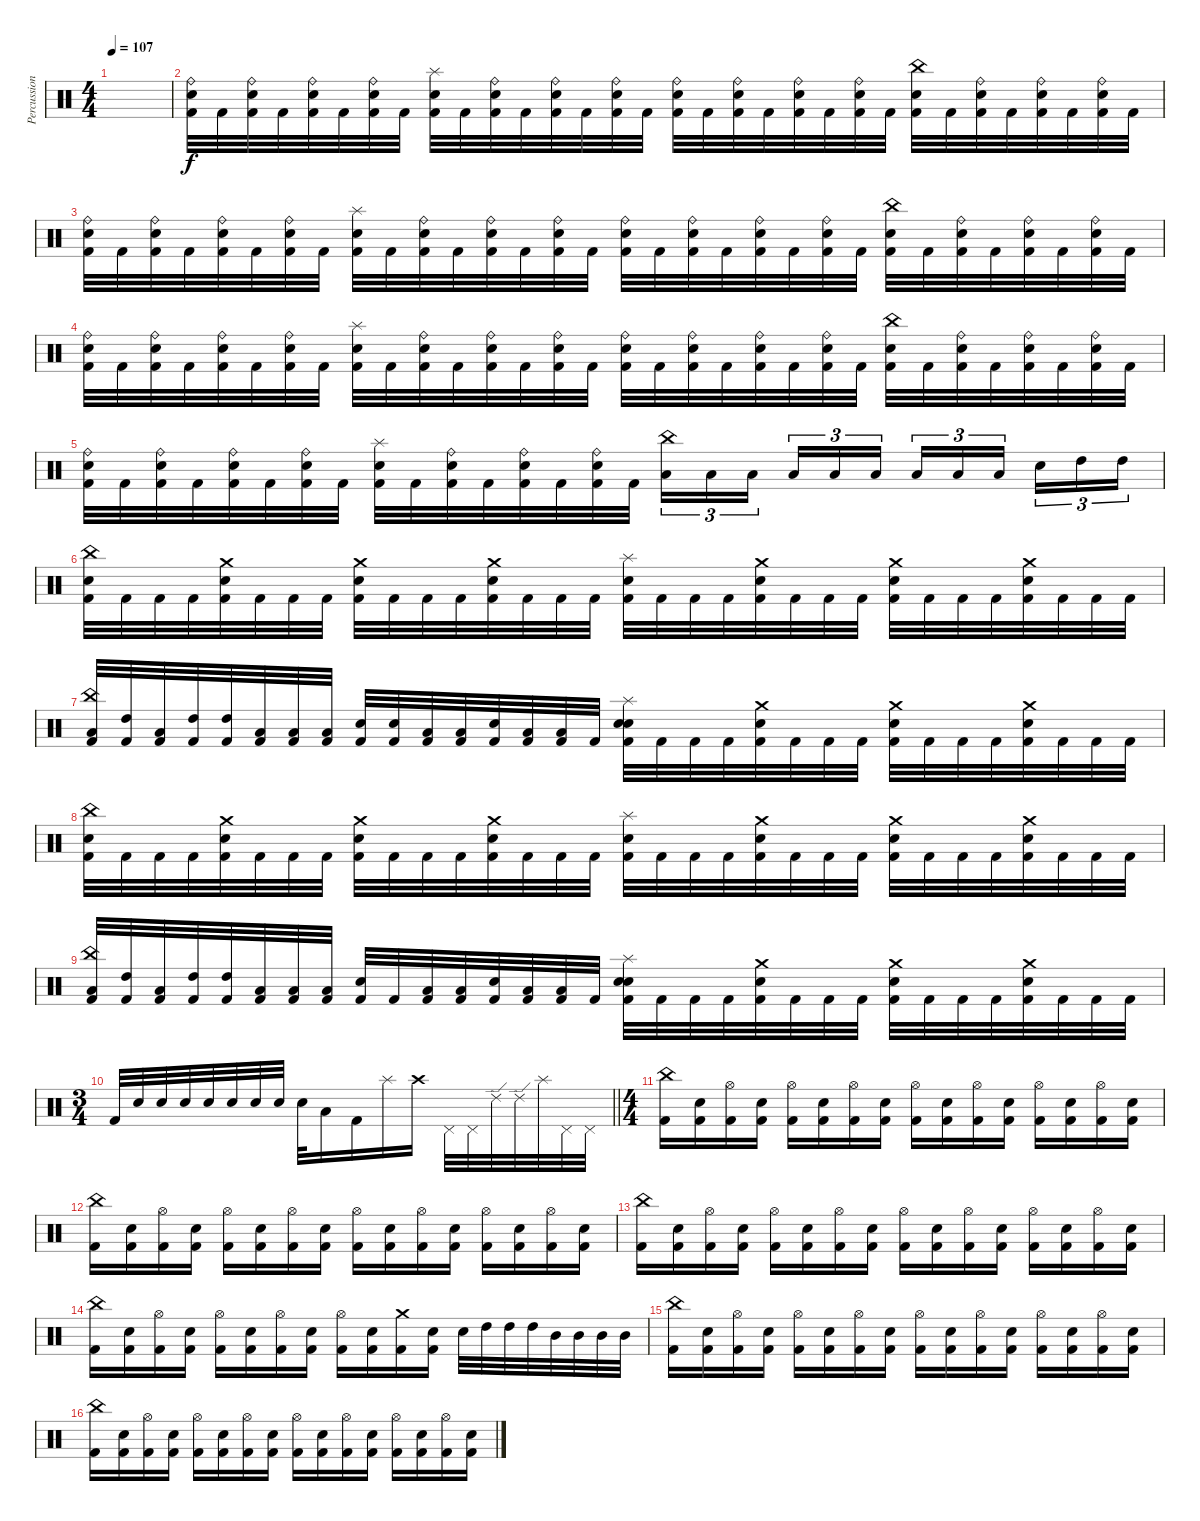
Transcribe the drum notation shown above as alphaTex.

\track ("Percussion" "Percussion") {instrument percussion}
\staff {score}
\articulation defaults
\ts (4 4)
\tempo 107
\clef neutral
\ks c
|
("Kick (hit) 2" "Electric Snare (hit)" "Ride (bell)").32 "Kick (hit) 2".32 ("Kick (hit) 2" "Electric Snare (hit)" "Ride (bell)").32 "Kick (hit) 2".32 ("Kick (hit) 2" "Electric Snare (hit)" "Ride (bell)").32 "Kick (hit) 2".32 ("Kick (hit) 2" "Electric Snare (hit)" "Ride (bell)").32 "Kick (hit) 2".32 ("Kick (hit) 2" "Electric Snare (hit)" "Splash (hit)").32 "Kick (hit) 2".32 ("Kick (hit) 2" "Electric Snare (hit)" "Ride (bell)").32 "Kick (hit) 2".32 ("Kick (hit) 2" "Electric Snare (hit)" "Ride (bell)").32 "Kick (hit) 2".32 ("Kick (hit) 2" "Electric Snare (hit)" "Ride (bell)").32 "Kick (hit) 2".32 ("Kick (hit) 2" "Electric Snare (hit)" "Ride (bell)").32 "Kick (hit) 2".32 ("Kick (hit) 2" "Electric Snare (hit)" "Ride (bell)").32 "Kick (hit) 2".32 ("Kick (hit) 2" "Electric Snare (hit)" "Ride (bell)").32 "Kick (hit) 2".32 ("Kick (hit) 2" "Electric Snare (hit)" "Ride (bell)").32 "Kick (hit) 2".32 ("Kick (hit) 2" "Electric Snare (hit)" "China (hit)").32 "Kick (hit) 2".32 ("Kick (hit) 2" "Electric Snare (hit)" "Ride (bell)").32 "Kick (hit) 2".32 ("Kick (hit) 2" "Electric Snare (hit)" "Ride (bell)").32 "Kick (hit) 2".32 ("Kick (hit) 2" "Electric Snare (hit)" "Ride (bell)").32 "Kick (hit) 2".32 |
("Kick (hit) 2" "Electric Snare (hit)" "Ride (bell)").32 "Kick (hit) 2".32 ("Kick (hit) 2" "Electric Snare (hit)" "Ride (bell)").32 "Kick (hit) 2".32 ("Kick (hit) 2" "Electric Snare (hit)" "Ride (bell)").32 "Kick (hit) 2".32 ("Kick (hit) 2" "Electric Snare (hit)" "Ride (bell)").32 "Kick (hit) 2".32 ("Kick (hit) 2" "Electric Snare (hit)" "Splash (hit)").32 "Kick (hit) 2".32 ("Kick (hit) 2" "Electric Snare (hit)" "Ride (bell)").32 "Kick (hit) 2".32 ("Kick (hit) 2" "Electric Snare (hit)" "Ride (bell)").32 "Kick (hit) 2".32 ("Kick (hit) 2" "Electric Snare (hit)" "Ride (bell)").32 "Kick (hit) 2".32 ("Kick (hit) 2" "Electric Snare (hit)" "Ride (bell)").32 "Kick (hit) 2".32 ("Kick (hit) 2" "Electric Snare (hit)" "Ride (bell)").32 "Kick (hit) 2".32 ("Kick (hit) 2" "Electric Snare (hit)" "Ride (bell)").32 "Kick (hit) 2".32 ("Kick (hit) 2" "Electric Snare (hit)" "Ride (bell)").32 "Kick (hit) 2".32 ("Kick (hit) 2" "Electric Snare (hit)" "China (hit)").32 "Kick (hit) 2".32 ("Kick (hit) 2" "Electric Snare (hit)" "Ride (bell)").32 "Kick (hit) 2".32 ("Kick (hit) 2" "Electric Snare (hit)" "Ride (bell)").32 "Kick (hit) 2".32 ("Kick (hit) 2" "Electric Snare (hit)" "Ride (bell)").32 "Kick (hit) 2".32 |
("Kick (hit) 2" "Electric Snare (hit)" "Ride (bell)").32 "Kick (hit) 2".32 ("Kick (hit) 2" "Electric Snare (hit)" "Ride (bell)").32 "Kick (hit) 2".32 ("Kick (hit) 2" "Electric Snare (hit)" "Ride (bell)").32 "Kick (hit) 2".32 ("Kick (hit) 2" "Electric Snare (hit)" "Ride (bell)").32 "Kick (hit) 2".32 ("Kick (hit) 2" "Electric Snare (hit)" "Splash (hit)").32 "Kick (hit) 2".32 ("Kick (hit) 2" "Electric Snare (hit)" "Ride (bell)").32 "Kick (hit) 2".32 ("Kick (hit) 2" "Electric Snare (hit)" "Ride (bell)").32 "Kick (hit) 2".32 ("Kick (hit) 2" "Electric Snare (hit)" "Ride (bell)").32 "Kick (hit) 2".32 ("Kick (hit) 2" "Electric Snare (hit)" "Ride (bell)").32 "Kick (hit) 2".32 ("Kick (hit) 2" "Electric Snare (hit)" "Ride (bell)").32 "Kick (hit) 2".32 ("Kick (hit) 2" "Electric Snare (hit)" "Ride (bell)").32 "Kick (hit) 2".32 ("Kick (hit) 2" "Electric Snare (hit)" "Ride (bell)").32 "Kick (hit) 2".32 ("Kick (hit) 2" "Electric Snare (hit)" "China (hit)").32 "Kick (hit) 2".32 ("Kick (hit) 2" "Electric Snare (hit)" "Ride (bell)").32 "Kick (hit) 2".32 ("Kick (hit) 2" "Electric Snare (hit)" "Ride (bell)").32 "Kick (hit) 2".32 ("Kick (hit) 2" "Electric Snare (hit)" "Ride (bell)").32 "Kick (hit) 2".32 |
("Kick (hit) 2" "Electric Snare (hit)" "Ride (bell)").32 "Kick (hit) 2".32 ("Kick (hit) 2" "Electric Snare (hit)" "Ride (bell)").32 "Kick (hit) 2".32 ("Kick (hit) 2" "Electric Snare (hit)" "Ride (bell)").32 "Kick (hit) 2".32 ("Kick (hit) 2" "Electric Snare (hit)" "Ride (bell)").32 "Kick (hit) 2".32 ("Kick (hit) 2" "Electric Snare (hit)" "Splash (hit)").32 "Kick (hit) 2".32 ("Kick (hit) 2" "Electric Snare (hit)" "Ride (bell)").32 "Kick (hit) 2".32 ("Kick (hit) 2" "Electric Snare (hit)" "Ride (bell)").32 "Kick (hit) 2".32 ("Kick (hit) 2" "Electric Snare (hit)" "Ride (bell)").32 "Kick (hit) 2".32 ("Low Floor Tom (hit)" "China (hit)").16{tu (3 2)} "Low Floor Tom (hit)".16{tu (3 2)} "Low Floor Tom (hit)".16{tu (3 2) beam splitsecondary} "Low Floor Tom (hit)".16{tu (3 2)} "Low Tom (hit)".16{tu (3 2)} "Low Tom (hit)".16{tu (3 2)} "Low Tom (hit)".16{tu (3 2)} "Low Tom (hit)".16{tu (3 2)} "Low Floor Tom (hit)".16{tu (3 2) beam splitsecondary} "Electric Snare (hit)".16{tu (3 2)} "High Tom (hit)".16{tu (3 2)} "High Tom (hit)".16{tu (3 2)} |
("Kick (hit) 2" "Electric Snare (hit)" "China (hit)").32 "Kick (hit) 2".32 "Kick (hit) 2".32 "Kick (hit) 2".32 ("Kick (hit) 2" "Electric Snare (hit)" "Crash medium (hit)").32 "Kick (hit) 2".32 "Kick (hit) 2".32 "Kick (hit) 2".32 ("Kick (hit) 2" "Electric Snare (hit)" "Crash medium (hit)").32 "Kick (hit) 2".32 "Kick (hit) 2".32 "Kick (hit) 2".32 ("Kick (hit) 2" "Electric Snare (hit)" "Crash medium (hit)").32 "Kick (hit) 2".32 "Kick (hit) 2".32 "Kick (hit) 2".32 ("Kick (hit) 2" "Electric Snare (hit)" "Splash (hit)").32 "Kick (hit) 2".32 "Kick (hit) 2".32 "Kick (hit) 2".32 ("Kick (hit) 2" "Electric Snare (hit)" "Crash medium (hit)").32 "Kick (hit) 2".32 "Kick (hit) 2".32 "Kick (hit) 2".32 ("Kick (hit) 2" "Electric Snare (hit)" "Crash medium (hit)").32 "Kick (hit) 2".32 "Kick (hit) 2".32 "Kick (hit) 2".32 ("Kick (hit) 2" "Electric Snare (hit)" "Crash medium (hit)").32 "Kick (hit) 2".32 "Kick (hit) 2".32 "Kick (hit) 2".32 |
("Kick (hit) 2" "Low Tom (hit)" "China (hit)").32 ("Kick (hit) 2" "High Tom (hit)").32 ("Kick (hit) 2" "Low Tom (hit)").32 ("Kick (hit) 2" "High Tom (hit)").32 ("Kick (hit) 2" "High Tom (hit)").32 ("Kick (hit) 2" "Low Tom (hit)").32 ("Kick (hit) 2" "Low Tom (hit)").32 ("Kick (hit) 2" "Low Floor Tom (hit)").32 ("Kick (hit) 2" "Electric Snare (hit)").32 ("Kick (hit) 2" "Electric Snare (hit)").32 ("Kick (hit) 2" "Low Floor Tom (hit)").32 ("Kick (hit) 2" "Low Tom (hit)").32 ("Kick (hit) 2" "Electric Snare (hit)").32 ("Kick (hit) 2" "Low Tom (hit)").32 ("Kick (hit) 2" "Low Floor Tom (hit)").32 "Kick (hit) 2".32 ("Kick (hit) 2" "Electric Snare (hit)" "Splash (hit)" "Electric Snare (hit)").32 "Kick (hit) 2".32 "Kick (hit) 2".32 "Kick (hit) 2".32 ("Kick (hit) 2" "Electric Snare (hit)" "Crash medium (hit)").32 "Kick (hit) 2".32 "Kick (hit) 2".32 "Kick (hit) 2".32 ("Kick (hit) 2" "Electric Snare (hit)" "Crash medium (hit)").32 "Kick (hit) 2".32 "Kick (hit) 2".32 "Kick (hit) 2".32 ("Kick (hit) 2" "Electric Snare (hit)" "Crash medium (hit)").32 "Kick (hit) 2".32 "Kick (hit) 2".32 "Kick (hit) 2".32 |
("Kick (hit) 2" "Electric Snare (hit)" "China (hit)").32 "Kick (hit) 2".32 "Kick (hit) 2".32 "Kick (hit) 2".32 ("Kick (hit) 2" "Electric Snare (hit)" "Crash medium (hit)").32 "Kick (hit) 2".32 "Kick (hit) 2".32 "Kick (hit) 2".32 ("Kick (hit) 2" "Electric Snare (hit)" "Crash medium (hit)").32 "Kick (hit) 2".32 "Kick (hit) 2".32 "Kick (hit) 2".32 ("Kick (hit) 2" "Electric Snare (hit)" "Crash medium (hit)").32 "Kick (hit) 2".32 "Kick (hit) 2".32 "Kick (hit) 2".32 ("Kick (hit) 2" "Electric Snare (hit)" "Splash (hit)").32 "Kick (hit) 2".32 "Kick (hit) 2".32 "Kick (hit) 2".32 ("Kick (hit) 2" "Electric Snare (hit)" "Crash medium (hit)").32 "Kick (hit) 2".32 "Kick (hit) 2".32 "Kick (hit) 2".32 ("Kick (hit) 2" "Electric Snare (hit)" "Crash medium (hit)").32 "Kick (hit) 2".32 "Kick (hit) 2".32 "Kick (hit) 2".32 ("Kick (hit) 2" "Electric Snare (hit)" "Crash medium (hit)").32 "Kick (hit) 2".32 "Kick (hit) 2".32 "Kick (hit) 2".32 |
("Kick (hit) 2" "Low Tom (hit)" "China (hit)").32 ("Kick (hit) 2" "High Tom (hit)").32 ("Kick (hit) 2" "Low Tom (hit)").32 ("Kick (hit) 2" "High Tom (hit)").32 ("Kick (hit) 2" "High Tom (hit)").32 ("Kick (hit) 2" "Low Tom (hit)").32 ("Kick (hit) 2" "Low Tom (hit)").32 ("Kick (hit) 2" "Low Tom (hit)").32 ("Kick (hit) 2" "Electric Snare (hit)").32 "Kick (hit) 2".32 ("Kick (hit) 2" "Low Floor Tom (hit)").32 ("Kick (hit) 2" "Low Tom (hit)").32 ("Kick (hit) 2" "Electric Snare (hit)").32 ("Kick (hit) 2" "Low Tom (hit)").32 ("Kick (hit) 2" "Low Floor Tom (hit)").32 "Kick (hit) 2".32 ("Kick (hit) 2" "Electric Snare (hit)" "Splash (hit)" "Electric Snare (hit)").32 "Kick (hit) 2".32 "Kick (hit) 2".32 "Kick (hit) 2".32 ("Kick (hit) 2" "Electric Snare (hit)" "Crash medium (hit)").32 "Kick (hit) 2".32 "Kick (hit) 2".32 "Kick (hit) 2".32 ("Kick (hit) 2" "Electric Snare (hit)" "Crash medium (hit)").32 "Kick (hit) 2".32 "Kick (hit) 2".32 "Kick (hit) 2".32 ("Kick (hit) 2" "Electric Snare (hit)" "Crash medium (hit)").32 "Kick (hit) 2".32 "Kick (hit) 2".32 "Kick (hit) 2".32 |
\ts (3 4)
\barLineRight lightlight "Kick (hit) 2".32 "Electric Snare (hit)".32 "Electric Snare (hit)".32 "Electric Snare (hit)".32 "Electric Snare (hit)".32 "Electric Snare (hit)".32 "Electric Snare (hit)".32 "Electric Snare (hit)".32 "Electric Snare (hit)".32 "Low Tom (hit)".16 "Kick (hit) 2".16 "Splash (hit)".16 "Crash high (hit)".16 "Pedal Hi-Hat (hit)".32 "Pedal Hi-Hat (hit)".32 "Ride (edge) 2".32 "Ride (edge) 2".32 "Splash (hit)".32 "Pedal Hi-Hat (hit)".32 "Pedal Hi-Hat (hit)".32
|
\ts (4 4)
("Kick (hit) 2" "China (hit)").16 ("Kick (hit) 2" "Electric Snare (hit)").16 ("Kick (hit) 2" "Hi-Hat (open)").16 ("Kick (hit) 2" "Electric Snare (hit)").16 ("Kick (hit) 2" "Hi-Hat (open)").16 ("Kick (hit) 2" "Electric Snare (hit)").16 ("Kick (hit) 2" "Hi-Hat (open)").16 ("Kick (hit) 2" "Electric Snare (hit)").16 ("Kick (hit) 2" "Hi-Hat (open)").16 ("Kick (hit) 2" "Electric Snare (hit)").16 ("Kick (hit) 2" "Hi-Hat (open)").16 ("Kick (hit) 2" "Electric Snare (hit)").16 ("Kick (hit) 2" "Hi-Hat (open)").16 ("Kick (hit) 2" "Electric Snare (hit)").16 ("Kick (hit) 2" "Hi-Hat (open)").16 ("Kick (hit) 2" "Electric Snare (hit)").16 |
("Kick (hit) 2" "China (hit)").16 ("Kick (hit) 2" "Electric Snare (hit)").16 ("Kick (hit) 2" "Hi-Hat (open)").16 ("Kick (hit) 2" "Electric Snare (hit)").16 ("Kick (hit) 2" "Hi-Hat (open)").16 ("Kick (hit) 2" "Electric Snare (hit)").16 ("Kick (hit) 2" "Hi-Hat (open)").16 ("Kick (hit) 2" "Electric Snare (hit)").16 ("Kick (hit) 2" "Hi-Hat (open)").16 ("Kick (hit) 2" "Electric Snare (hit)").16 ("Kick (hit) 2" "Hi-Hat (open)").16 ("Kick (hit) 2" "Electric Snare (hit)").16 ("Kick (hit) 2" "Hi-Hat (open)").16 ("Kick (hit) 2" "Electric Snare (hit)").16 ("Kick (hit) 2" "Hi-Hat (open)").16 ("Kick (hit) 2" "Electric Snare (hit)").16 |
("Kick (hit) 2" "China (hit)").16 ("Kick (hit) 2" "Electric Snare (hit)").16 ("Kick (hit) 2" "Hi-Hat (open)").16 ("Kick (hit) 2" "Electric Snare (hit)").16 ("Kick (hit) 2" "Hi-Hat (open)").16 ("Kick (hit) 2" "Electric Snare (hit)").16 ("Kick (hit) 2" "Hi-Hat (open)").16 ("Kick (hit) 2" "Electric Snare (hit)").16 ("Kick (hit) 2" "Hi-Hat (open)").16 ("Kick (hit) 2" "Electric Snare (hit)").16 ("Kick (hit) 2" "Hi-Hat (open)").16 ("Kick (hit) 2" "Electric Snare (hit)").16 ("Kick (hit) 2" "Hi-Hat (open)").16 ("Kick (hit) 2" "Electric Snare (hit)").16 ("Kick (hit) 2" "Hi-Hat (open)").16 ("Kick (hit) 2" "Electric Snare (hit)").16 |
("Kick (hit) 2" "China (hit)").16 ("Kick (hit) 2" "Electric Snare (hit)").16 ("Kick (hit) 2" "Hi-Hat (open)").16 ("Kick (hit) 2" "Electric Snare (hit)").16 ("Kick (hit) 2" "Hi-Hat (open)").16 ("Kick (hit) 2" "Electric Snare (hit)").16 ("Kick (hit) 2" "Hi-Hat (open)").16 ("Kick (hit) 2" "Electric Snare (hit)").16 ("Kick (hit) 2" "Hi-Hat (open)").16 ("Kick (hit) 2" "Electric Snare (hit)").16 ("Kick (hit) 2" "Crash medium (hit)").16 ("Kick (hit) 2" "Electric Snare (hit)").16 "Electric Snare (hit)".32 "High Tom (hit)".32 "High Tom (hit)".32 "High Tom (hit)".32 "Mid Tom (hit)".32 "Mid Tom (hit)".32 "Mid Tom (hit)".32 "Mid Tom (hit)".32 |
("Kick (hit) 2" "China (hit)").16 ("Kick (hit) 2" "Electric Snare (hit)").16 ("Kick (hit) 2" "Hi-Hat (open)").16 ("Kick (hit) 2" "Electric Snare (hit)").16 ("Kick (hit) 2" "Hi-Hat (open)").16 ("Kick (hit) 2" "Electric Snare (hit)").16 ("Kick (hit) 2" "Hi-Hat (open)").16 ("Kick (hit) 2" "Electric Snare (hit)").16 ("Kick (hit) 2" "Hi-Hat (open)").16 ("Kick (hit) 2" "Electric Snare (hit)").16 ("Kick (hit) 2" "Hi-Hat (open)").16 ("Kick (hit) 2" "Electric Snare (hit)").16 ("Kick (hit) 2" "Hi-Hat (open)").16 ("Kick (hit) 2" "Electric Snare (hit)").16 ("Kick (hit) 2" "Hi-Hat (open)").16 ("Kick (hit) 2" "Electric Snare (hit)").16 |
("Kick (hit) 2" "China (hit)").16 ("Kick (hit) 2" "Electric Snare (hit)").16 ("Kick (hit) 2" "Hi-Hat (open)").16 ("Kick (hit) 2" "Electric Snare (hit)").16 ("Kick (hit) 2" "Hi-Hat (open)").16 ("Kick (hit) 2" "Electric Snare (hit)").16 ("Kick (hit) 2" "Hi-Hat (open)").16 ("Kick (hit) 2" "Electric Snare (hit)").16 ("Kick (hit) 2" "Hi-Hat (open)").16 ("Kick (hit) 2" "Electric Snare (hit)").16 ("Kick (hit) 2" "Hi-Hat (open)").16 ("Kick (hit) 2" "Electric Snare (hit)").16 ("Kick (hit) 2" "Hi-Hat (open)").16 ("Kick (hit) 2" "Electric Snare (hit)").16 ("Kick (hit) 2" "Hi-Hat (open)").16 ("Kick (hit) 2" "Electric Snare (hit)").16
